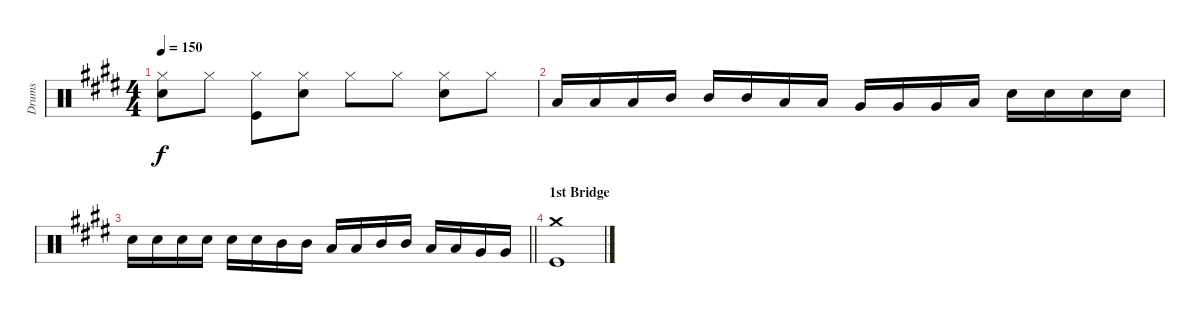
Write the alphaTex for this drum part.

\track ("Drums" "Drums") {instrument percussion}
\staff {score}
\articulation defaults
\ts (4 4)
\tempo 150
\clef neutral
\ks c#minor
("Hi-Hat (closed)" "Snare (hit) 2").8{dy f} "Hi-Hat (closed)".8 ("Hi-Hat (closed)" "Kick (hit)").8 ("Hi-Hat (closed)" "Snare (hit) 2").8 "Hi-Hat (closed)".8 "Hi-Hat (closed)".8 ("Hi-Hat (closed)" "Snare (hit) 2").8 "Hi-Hat (closed)".8 |
"Low Tom (hit)".16 "Low Tom (hit)".16 "Low Tom (hit)".16 "Mid Tom (hit)".16 "Mid Tom (hit)".16 "Mid Tom (hit)".16 "Low Tom (hit)".16 "Low Tom (hit)".16 "Very Low Tom (hit)".16 "Very Low Tom (hit)".16 "Very Low Tom (hit)".16 "Low Tom (hit)".16 "Snare (hit) 2".16 "Snare (hit) 2".16 "Snare (hit) 2".16 "Snare (hit) 2".16 |
\barLineRight lightlight "Snare (hit) 2".16 "Snare (hit) 2".16 "Snare (hit) 2".16 "Snare (hit) 2".16 "Snare (hit) 2".16 "Snare (hit) 2".16 "Mid Tom (hit)".16 "Mid Tom (hit)".16 "Low Tom (hit)".16 "Low Tom (hit)".16 "Mid Tom (hit)".16 "Mid Tom (hit)".16 "Low Tom (hit)".16 "Low Tom (hit)".16 "Very Low Tom (hit)".16 "Very Low Tom (hit)".16
|
\section ("" "1st Bridge")
("Crash medium (hit)" "Kick (hit)").1
